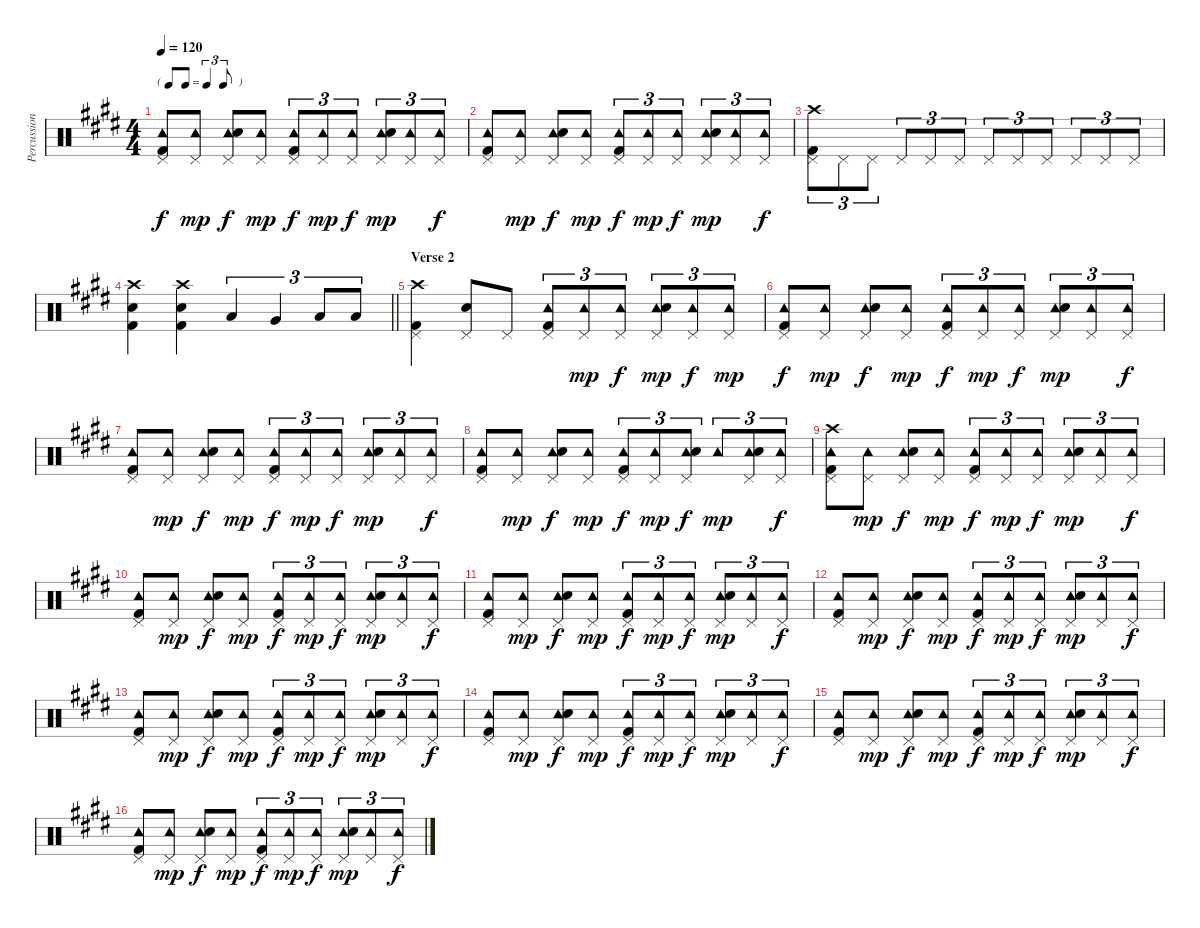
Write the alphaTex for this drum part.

\track ("Percussion" "Percussion") {instrument percussion}
\staff {score}
\articulation defaults
\ts (4 4)
\tf triplet8th
\tempo 120
\clef neutral
\ks e
("Tambourine (hit)" "Pedal Hi-Hat (hit)" "Kick (hit) 2").8{dy f} ("Tambourine (hit)" "Pedal Hi-Hat (hit)").8{dy mp} ("Tambourine (hit)" "Pedal Hi-Hat (hit)" "Electric Snare (hit)").8{dy f} ("Tambourine (hit)" "Pedal Hi-Hat (hit)").8{dy mp} ("Tambourine (hit)" "Pedal Hi-Hat (hit)" "Kick (hit) 2").8{tu (3 2) dy f} ("Tambourine (hit)" "Pedal Hi-Hat (hit)").8{tu (3 2) dy mp} ("Tambourine (hit)" "Pedal Hi-Hat (hit)").8{tu (3 2) dy f} ("Tambourine (hit)" "Pedal Hi-Hat (hit)" "Electric Snare (hit)").8{tu (3 2) dy mp} ("Tambourine (hit)" "Pedal Hi-Hat (hit)").8{tu (3 2)} ("Tambourine (hit)" "Pedal Hi-Hat (hit)").8{tu (3 2) dy f} |
("Tambourine (hit)" "Pedal Hi-Hat (hit)" "Kick (hit) 2").8 ("Tambourine (hit)" "Pedal Hi-Hat (hit)").8{dy mp} ("Tambourine (hit)" "Pedal Hi-Hat (hit)" "Electric Snare (hit)").8{dy f} ("Tambourine (hit)" "Pedal Hi-Hat (hit)").8{dy mp} ("Tambourine (hit)" "Pedal Hi-Hat (hit)" "Kick (hit) 2").8{tu (3 2) dy f} ("Tambourine (hit)" "Pedal Hi-Hat (hit)").8{tu (3 2) dy mp} ("Tambourine (hit)" "Pedal Hi-Hat (hit)").8{tu (3 2) dy f} ("Tambourine (hit)" "Pedal Hi-Hat (hit)" "Electric Snare (hit)").8{tu (3 2) dy mp} ("Tambourine (hit)" "Pedal Hi-Hat (hit)").8{tu (3 2)} ("Tambourine (hit)" "Pedal Hi-Hat (hit)").8{tu (3 2) dy f} |
("Crash high (hit)" "Pedal Hi-Hat (hit)" "Kick (hit) 2").8{tu (3 2) volume 14} "Pedal Hi-Hat (hit)".8{tu (3 2)} "Pedal Hi-Hat (hit)".8{tu (3 2)} "Pedal Hi-Hat (hit)".8{tu (3 2)} "Pedal Hi-Hat (hit)".8{tu (3 2)} "Pedal Hi-Hat (hit)".8{tu (3 2)} "Pedal Hi-Hat (hit)".8{tu (3 2)} "Pedal Hi-Hat (hit)".8{tu (3 2)} "Pedal Hi-Hat (hit)".8{tu (3 2)} "Pedal Hi-Hat (hit)".8{tu (3 2)} "Pedal Hi-Hat (hit)".8{tu (3 2)} "Pedal Hi-Hat (hit)".8{tu (3 2)} |
\barLineRight lightlight
("Crash high (hit)" "Electric Snare (hit)" "Kick (hit) 2").4 ("Crash high (hit)" "Electric Snare (hit)" "Kick (hit) 2").4 "Low Tom (hit)".4{tu (3 2)} "Very Low Tom (hit)".4{tu (3 2)} "Low Floor Tom (hit)".8{tu (3 2)} "Low Floor Tom (hit)".8{tu (3 2)} |
\section ("" "Verse 2")
("Crash high (hit)" "Pedal Hi-Hat (hit)" "Kick (hit) 2").4{volume 10} ("Pedal Hi-Hat (hit)" "Electric Snare (hit)").8 "Pedal Hi-Hat (hit)".8 ("Tambourine (hit)" "Pedal Hi-Hat (hit)" "Kick (hit) 2").8{tu (3 2)} ("Tambourine (hit)" "Pedal Hi-Hat (hit)").8{tu (3 2) dy mp} ("Tambourine (hit)" "Pedal Hi-Hat (hit)").8{tu (3 2) dy f} ("Tambourine (hit)" "Pedal Hi-Hat (hit)" "Electric Snare (hit)").8{tu (3 2) dy mp} ("Tambourine (hit)" "Pedal Hi-Hat (hit)").8{tu (3 2) dy f} ("Tambourine (hit)" "Pedal Hi-Hat (hit)").8{tu (3 2) dy mp} |
("Tambourine (hit)" "Pedal Hi-Hat (hit)" "Kick (hit) 2").8{dy f} ("Tambourine (hit)" "Pedal Hi-Hat (hit)").8{dy mp} ("Tambourine (hit)" "Pedal Hi-Hat (hit)" "Electric Snare (hit)").8{dy f} ("Tambourine (hit)" "Pedal Hi-Hat (hit)").8{dy mp} ("Tambourine (hit)" "Pedal Hi-Hat (hit)" "Kick (hit) 2").8{tu (3 2) dy f} ("Tambourine (hit)" "Pedal Hi-Hat (hit)").8{tu (3 2) dy mp} ("Tambourine (hit)" "Pedal Hi-Hat (hit)").8{tu (3 2) dy f} ("Tambourine (hit)" "Pedal Hi-Hat (hit)" "Electric Snare (hit)").8{tu (3 2) dy mp} ("Tambourine (hit)" "Pedal Hi-Hat (hit)").8{tu (3 2)} ("Tambourine (hit)" "Pedal Hi-Hat (hit)").8{tu (3 2) dy f} |
("Tambourine (hit)" "Pedal Hi-Hat (hit)" "Kick (hit) 2").8 ("Tambourine (hit)" "Pedal Hi-Hat (hit)").8{dy mp} ("Tambourine (hit)" "Pedal Hi-Hat (hit)" "Electric Snare (hit)").8{dy f} ("Tambourine (hit)" "Pedal Hi-Hat (hit)").8{dy mp} ("Tambourine (hit)" "Pedal Hi-Hat (hit)" "Kick (hit) 2").8{tu (3 2) dy f} ("Tambourine (hit)" "Pedal Hi-Hat (hit)").8{tu (3 2) dy mp} ("Tambourine (hit)" "Pedal Hi-Hat (hit)").8{tu (3 2) dy f} ("Tambourine (hit)" "Pedal Hi-Hat (hit)" "Electric Snare (hit)").8{tu (3 2) dy mp} ("Tambourine (hit)" "Pedal Hi-Hat (hit)").8{tu (3 2)} ("Tambourine (hit)" "Pedal Hi-Hat (hit)").8{tu (3 2) dy f} |
("Tambourine (hit)" "Pedal Hi-Hat (hit)" "Kick (hit) 2").8 ("Tambourine (hit)" "Pedal Hi-Hat (hit)").8{dy mp} ("Tambourine (hit)" "Pedal Hi-Hat (hit)" "Electric Snare (hit)").8{dy f} ("Tambourine (hit)" "Pedal Hi-Hat (hit)").8{dy mp} ("Tambourine (hit)" "Pedal Hi-Hat (hit)" "Kick (hit) 2").8{tu (3 2) dy f} ("Tambourine (hit)" "Pedal Hi-Hat (hit)").8{tu (3 2) dy mp} ("Tambourine (hit)" "Pedal Hi-Hat (hit)" "Electric Snare (hit)").8{tu (3 2) dy f} "Tambourine (hit)".8{tu (3 2) dy mp} ("Tambourine (hit)" "Pedal Hi-Hat (hit)" "Electric Snare (hit)").8{tu (3 2)} ("Tambourine (hit)" "Pedal Hi-Hat (hit)").8{tu (3 2) dy f} |
("Tambourine (hit)" "Crash high (hit)" "Pedal Hi-Hat (hit)" "Kick (hit) 2").8 ("Tambourine (hit)" "Pedal Hi-Hat (hit)").8{dy mp} ("Tambourine (hit)" "Pedal Hi-Hat (hit)" "Electric Snare (hit)").8{dy f} ("Tambourine (hit)" "Pedal Hi-Hat (hit)").8{dy mp} ("Tambourine (hit)" "Pedal Hi-Hat (hit)" "Kick (hit) 2").8{tu (3 2) dy f} ("Tambourine (hit)" "Pedal Hi-Hat (hit)").8{tu (3 2) dy mp} ("Tambourine (hit)" "Pedal Hi-Hat (hit)").8{tu (3 2) dy f} ("Tambourine (hit)" "Pedal Hi-Hat (hit)" "Electric Snare (hit)").8{tu (3 2) dy mp} ("Tambourine (hit)" "Pedal Hi-Hat (hit)").8{tu (3 2)} ("Tambourine (hit)" "Pedal Hi-Hat (hit)").8{tu (3 2) dy f} |
("Tambourine (hit)" "Pedal Hi-Hat (hit)" "Kick (hit) 2").8 ("Tambourine (hit)" "Pedal Hi-Hat (hit)").8{dy mp} ("Tambourine (hit)" "Pedal Hi-Hat (hit)" "Electric Snare (hit)").8{dy f} ("Tambourine (hit)" "Pedal Hi-Hat (hit)").8{dy mp} ("Tambourine (hit)" "Pedal Hi-Hat (hit)" "Kick (hit) 2").8{tu (3 2) dy f} ("Tambourine (hit)" "Pedal Hi-Hat (hit)").8{tu (3 2) dy mp} ("Tambourine (hit)" "Pedal Hi-Hat (hit)").8{tu (3 2) dy f} ("Tambourine (hit)" "Pedal Hi-Hat (hit)" "Electric Snare (hit)").8{tu (3 2) dy mp} ("Tambourine (hit)" "Pedal Hi-Hat (hit)").8{tu (3 2)} ("Tambourine (hit)" "Pedal Hi-Hat (hit)").8{tu (3 2) dy f} |
("Tambourine (hit)" "Pedal Hi-Hat (hit)" "Kick (hit) 2").8 ("Tambourine (hit)" "Pedal Hi-Hat (hit)").8{dy mp} ("Tambourine (hit)" "Pedal Hi-Hat (hit)" "Electric Snare (hit)").8{dy f} ("Tambourine (hit)" "Pedal Hi-Hat (hit)").8{dy mp} ("Tambourine (hit)" "Pedal Hi-Hat (hit)" "Kick (hit) 2").8{tu (3 2) dy f} ("Tambourine (hit)" "Pedal Hi-Hat (hit)").8{tu (3 2) dy mp} ("Tambourine (hit)" "Pedal Hi-Hat (hit)").8{tu (3 2) dy f} ("Tambourine (hit)" "Pedal Hi-Hat (hit)" "Electric Snare (hit)").8{tu (3 2) dy mp} ("Tambourine (hit)" "Pedal Hi-Hat (hit)").8{tu (3 2)} ("Tambourine (hit)" "Pedal Hi-Hat (hit)").8{tu (3 2) dy f} |
("Tambourine (hit)" "Pedal Hi-Hat (hit)" "Kick (hit) 2").8 ("Tambourine (hit)" "Pedal Hi-Hat (hit)").8{dy mp} ("Tambourine (hit)" "Pedal Hi-Hat (hit)" "Electric Snare (hit)").8{dy f} ("Tambourine (hit)" "Pedal Hi-Hat (hit)").8{dy mp} ("Tambourine (hit)" "Pedal Hi-Hat (hit)" "Kick (hit) 2").8{tu (3 2) dy f} ("Tambourine (hit)" "Pedal Hi-Hat (hit)").8{tu (3 2) dy mp} ("Tambourine (hit)" "Pedal Hi-Hat (hit)").8{tu (3 2) dy f} ("Tambourine (hit)" "Pedal Hi-Hat (hit)" "Electric Snare (hit)").8{tu (3 2) dy mp} ("Tambourine (hit)" "Pedal Hi-Hat (hit)").8{tu (3 2)} ("Tambourine (hit)" "Pedal Hi-Hat (hit)").8{tu (3 2) dy f} |
("Tambourine (hit)" "Pedal Hi-Hat (hit)" "Kick (hit) 2").8 ("Tambourine (hit)" "Pedal Hi-Hat (hit)").8{dy mp} ("Tambourine (hit)" "Pedal Hi-Hat (hit)" "Electric Snare (hit)").8{dy f} ("Tambourine (hit)" "Pedal Hi-Hat (hit)").8{dy mp} ("Tambourine (hit)" "Pedal Hi-Hat (hit)" "Kick (hit) 2").8{tu (3 2) dy f} ("Tambourine (hit)" "Pedal Hi-Hat (hit)").8{tu (3 2) dy mp} ("Tambourine (hit)" "Pedal Hi-Hat (hit)").8{tu (3 2) dy f} ("Tambourine (hit)" "Pedal Hi-Hat (hit)" "Electric Snare (hit)").8{tu (3 2) dy mp} ("Tambourine (hit)" "Pedal Hi-Hat (hit)").8{tu (3 2)} ("Tambourine (hit)" "Pedal Hi-Hat (hit)").8{tu (3 2) dy f} |
("Tambourine (hit)" "Pedal Hi-Hat (hit)" "Kick (hit) 2").8 ("Tambourine (hit)" "Pedal Hi-Hat (hit)").8{dy mp} ("Tambourine (hit)" "Pedal Hi-Hat (hit)" "Electric Snare (hit)").8{dy f} ("Tambourine (hit)" "Pedal Hi-Hat (hit)").8{dy mp} ("Tambourine (hit)" "Pedal Hi-Hat (hit)" "Kick (hit) 2").8{tu (3 2) dy f} ("Tambourine (hit)" "Pedal Hi-Hat (hit)").8{tu (3 2) dy mp} ("Tambourine (hit)" "Pedal Hi-Hat (hit)").8{tu (3 2) dy f} ("Tambourine (hit)" "Pedal Hi-Hat (hit)" "Electric Snare (hit)").8{tu (3 2) dy mp} ("Tambourine (hit)" "Pedal Hi-Hat (hit)").8{tu (3 2)} ("Tambourine (hit)" "Pedal Hi-Hat (hit)").8{tu (3 2) dy f} |
("Tambourine (hit)" "Pedal Hi-Hat (hit)" "Kick (hit) 2").8 ("Tambourine (hit)" "Pedal Hi-Hat (hit)").8{dy mp} ("Tambourine (hit)" "Pedal Hi-Hat (hit)" "Electric Snare (hit)").8{dy f} ("Tambourine (hit)" "Pedal Hi-Hat (hit)").8{dy mp} ("Tambourine (hit)" "Pedal Hi-Hat (hit)" "Kick (hit) 2").8{tu (3 2) dy f} ("Tambourine (hit)" "Pedal Hi-Hat (hit)").8{tu (3 2) dy mp} ("Tambourine (hit)" "Pedal Hi-Hat (hit)").8{tu (3 2) dy f} ("Tambourine (hit)" "Pedal Hi-Hat (hit)" "Electric Snare (hit)").8{tu (3 2) dy mp} ("Tambourine (hit)" "Pedal Hi-Hat (hit)").8{tu (3 2)} ("Tambourine (hit)" "Pedal Hi-Hat (hit)").8{tu (3 2) dy f} |
("Tambourine (hit)" "Pedal Hi-Hat (hit)" "Kick (hit) 2").8 ("Tambourine (hit)" "Pedal Hi-Hat (hit)").8{dy mp} ("Tambourine (hit)" "Pedal Hi-Hat (hit)" "Electric Snare (hit)").8{dy f} ("Tambourine (hit)" "Pedal Hi-Hat (hit)").8{dy mp} ("Tambourine (hit)" "Pedal Hi-Hat (hit)" "Kick (hit) 2").8{tu (3 2) dy f} ("Tambourine (hit)" "Pedal Hi-Hat (hit)").8{tu (3 2) dy mp} ("Tambourine (hit)" "Pedal Hi-Hat (hit)").8{tu (3 2) dy f} ("Tambourine (hit)" "Pedal Hi-Hat (hit)" "Electric Snare (hit)").8{tu (3 2) dy mp} ("Tambourine (hit)" "Pedal Hi-Hat (hit)").8{tu (3 2)} ("Tambourine (hit)" "Pedal Hi-Hat (hit)").8{tu (3 2) dy f}
